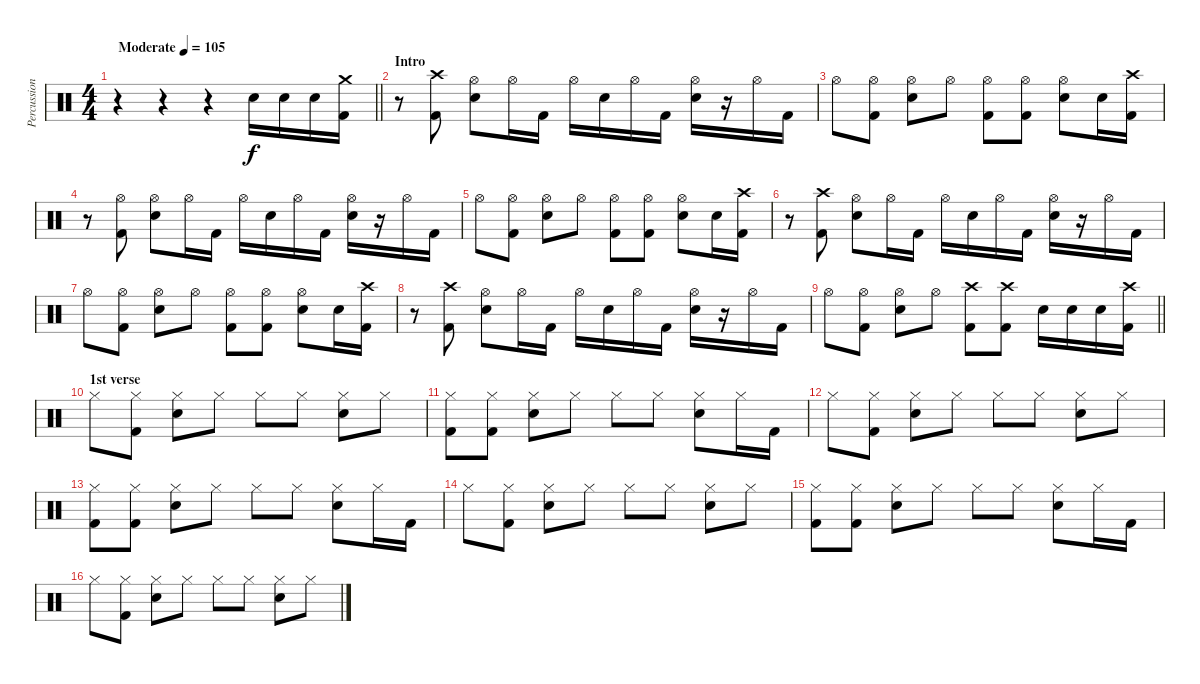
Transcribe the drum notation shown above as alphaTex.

\track ("Percussions" "Percussion") {instrument percussion}
\staff {score}
\articulation defaults
\ts (4 4)
\tempo (105 "Moderate")
\clef neutral
\barLineRight lightlight
\ks c
r.4{dy f} r.4 r.4 "Electric Snare (hit)".16 "Electric Snare (hit)".16 "Electric Snare (hit)".16 ("Crash medium (hit)" "Kick (hit) 2").16 |
\section ("" "Intro")
r.8 ("Crash high (hit)" "Kick (hit) 2").8 ("Hi-Hat (open)" "Electric Snare (hit)").8 "Hi-Hat (open)".16 "Kick (hit) 2".16 "Hi-Hat (open)".16 "Electric Snare (hit)".16 "Hi-Hat (open)".16 "Kick (hit) 2".16 ("Hi-Hat (open)" "Electric Snare (hit)").16 r.16 "Hi-Hat (open)".16 "Kick (hit) 2".16 |
"Hi-Hat (open)".8 ("Hi-Hat (open)" "Kick (hit) 2").8 ("Hi-Hat (open)" "Electric Snare (hit)").8 "Hi-Hat (open)".8 ("Hi-Hat (open)" "Kick (hit) 2").8 ("Hi-Hat (open)" "Kick (hit) 2").8 ("Hi-Hat (open)" "Electric Snare (hit)").8 "Electric Snare (hit)".16 ("Crash high (hit)" "Kick (hit) 2").16 |
r.8 ("Hi-Hat (open)" "Kick (hit) 2").8 ("Hi-Hat (open)" "Electric Snare (hit)").8 "Hi-Hat (open)".16 "Kick (hit) 2".16 "Hi-Hat (open)".16 "Electric Snare (hit)".16 "Hi-Hat (open)".16 "Kick (hit) 2".16 ("Hi-Hat (open)" "Electric Snare (hit)").16 r.16 "Hi-Hat (open)".16 "Kick (hit) 2".16 |
"Hi-Hat (open)".8 ("Hi-Hat (open)" "Kick (hit) 2").8 ("Hi-Hat (open)" "Electric Snare (hit)").8 "Hi-Hat (open)".8 ("Hi-Hat (open)" "Kick (hit) 2").8 ("Hi-Hat (open)" "Kick (hit) 2").8 ("Hi-Hat (open)" "Electric Snare (hit)").8 "Electric Snare (hit)".16 ("Crash high (hit)" "Kick (hit) 2").16 |
r.8 ("Crash high (hit)" "Kick (hit) 2").8 ("Hi-Hat (open)" "Electric Snare (hit)").8 "Hi-Hat (open)".16 "Kick (hit) 2".16 "Hi-Hat (open)".16 "Electric Snare (hit)".16 "Hi-Hat (open)".16 "Kick (hit) 2".16 ("Hi-Hat (open)" "Electric Snare (hit)").16 r.16 "Hi-Hat (open)".16 "Kick (hit) 2".16 |
"Hi-Hat (open)".8 ("Hi-Hat (open)" "Kick (hit) 2").8 ("Hi-Hat (open)" "Electric Snare (hit)").8 "Hi-Hat (open)".8 ("Hi-Hat (open)" "Kick (hit) 2").8 ("Hi-Hat (open)" "Kick (hit) 2").8 ("Hi-Hat (open)" "Electric Snare (hit)").8 "Electric Snare (hit)".16 ("Crash high (hit)" "Kick (hit) 2").16 |
r.8 ("Crash high (hit)" "Kick (hit) 2").8 ("Hi-Hat (open)" "Electric Snare (hit)").8 "Hi-Hat (open)".16 "Kick (hit) 2".16 "Hi-Hat (open)".16 "Electric Snare (hit)".16 "Hi-Hat (open)".16 "Kick (hit) 2".16 ("Hi-Hat (open)" "Electric Snare (hit)").16 r.16 "Hi-Hat (open)".16 "Kick (hit) 2".16 |
\barLineRight lightlight "Hi-Hat (open)".8
("Hi-Hat (open)" "Kick (hit) 2").8 ("Hi-Hat (open)" "Electric Snare (hit)").8 "Hi-Hat (open)".8 ("Crash high (hit)" "Kick (hit) 2").8 ("Crash high (hit)" "Kick (hit) 2").8 "Electric Snare (hit)".16 "Electric Snare (hit)".16 "Electric Snare (hit)".16 ("Kick (hit) 2" "Crash high (hit)").16 |
\section ("" "1st verse")
"Hi-Hat (closed)".8 ("Hi-Hat (closed)" "Kick (hit) 2").8 ("Hi-Hat (closed)" "Electric Snare (hit)").8 "Hi-Hat (closed)".8 "Hi-Hat (closed)".8 "Hi-Hat (closed)".8 ("Hi-Hat (closed)" "Electric Snare (hit)").8 "Hi-Hat (closed)".8 |
("Hi-Hat (closed)" "Kick (hit) 2").8 ("Hi-Hat (closed)" "Kick (hit) 2").8 ("Hi-Hat (closed)" "Electric Snare (hit)").8 "Hi-Hat (closed)".8 "Hi-Hat (closed)".8 "Hi-Hat (closed)".8 ("Hi-Hat (closed)" "Electric Snare (hit)").8 "Hi-Hat (closed)".16 "Kick (hit) 2".16 |
"Hi-Hat (closed)".8 ("Hi-Hat (closed)" "Kick (hit) 2").8 ("Hi-Hat (closed)" "Electric Snare (hit)").8 "Hi-Hat (closed)".8 "Hi-Hat (closed)".8 "Hi-Hat (closed)".8 ("Hi-Hat (closed)" "Electric Snare (hit)").8 "Hi-Hat (closed)".8 |
("Hi-Hat (closed)" "Kick (hit) 2").8 ("Hi-Hat (closed)" "Kick (hit) 2").8 ("Hi-Hat (closed)" "Electric Snare (hit)").8 "Hi-Hat (closed)".8 "Hi-Hat (closed)".8 "Hi-Hat (closed)".8 ("Hi-Hat (closed)" "Electric Snare (hit)").8 "Hi-Hat (closed)".16 "Kick (hit) 2".16 |
"Hi-Hat (closed)".8 ("Hi-Hat (closed)" "Kick (hit) 2").8 ("Hi-Hat (closed)" "Electric Snare (hit)").8 "Hi-Hat (closed)".8 "Hi-Hat (closed)".8 "Hi-Hat (closed)".8 ("Hi-Hat (closed)" "Electric Snare (hit)").8 "Hi-Hat (closed)".8 |
("Hi-Hat (closed)" "Kick (hit) 2").8 ("Hi-Hat (closed)" "Kick (hit) 2").8 ("Hi-Hat (closed)" "Electric Snare (hit)").8 "Hi-Hat (closed)".8 "Hi-Hat (closed)".8 "Hi-Hat (closed)".8 ("Hi-Hat (closed)" "Electric Snare (hit)").8 "Hi-Hat (closed)".16 "Kick (hit) 2".16 |
"Hi-Hat (closed)".8 ("Hi-Hat (closed)" "Kick (hit) 2").8 ("Hi-Hat (closed)" "Electric Snare (hit)").8 "Hi-Hat (closed)".8 "Hi-Hat (closed)".8 "Hi-Hat (closed)".8 ("Hi-Hat (closed)" "Electric Snare (hit)").8 "Hi-Hat (closed)".8
